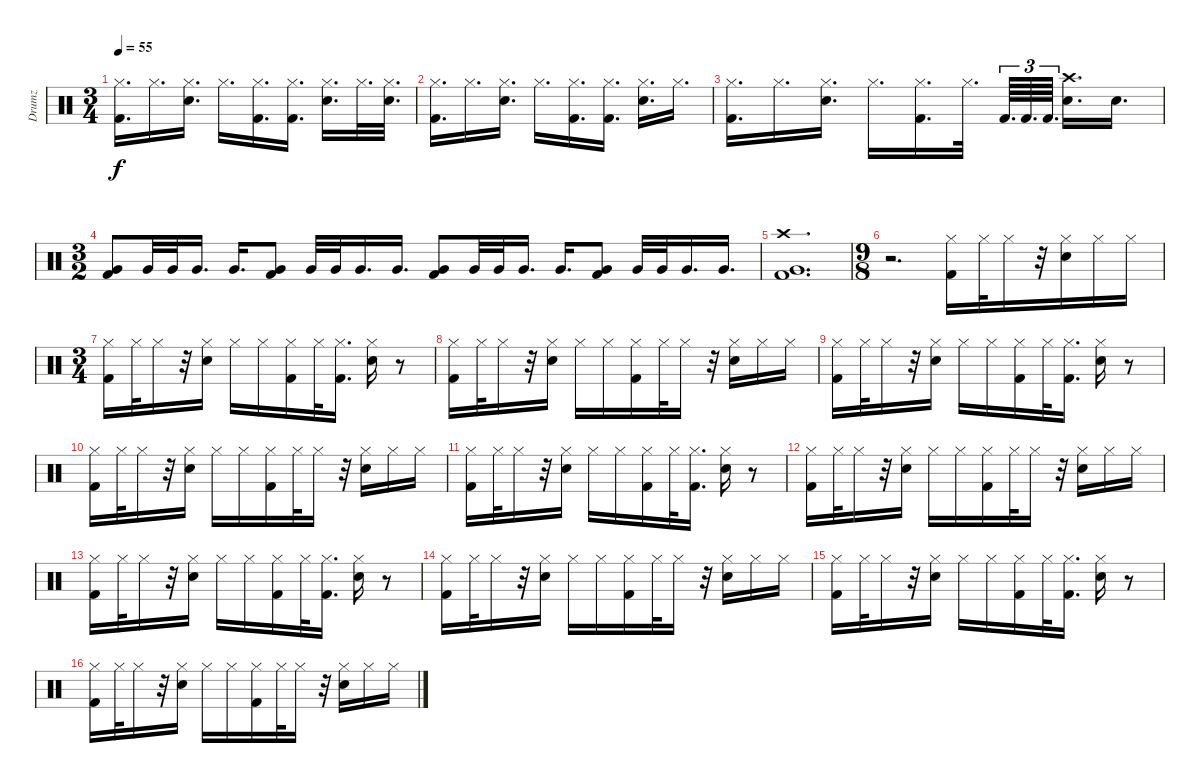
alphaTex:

\track ("Drumz" "Drumz") {instrument percussion}
\staff {score}
\articulation defaults
\ts (3 4)
\tempo 55
\clef neutral
\ks c
("Hi-Hat (closed)" "Kick (hit) 2").16{d dy f} "Hi-Hat (closed)".16{d} ("Hi-Hat (closed)" "Snare (hit) 2").16{d} "Hi-Hat (closed)".16{d} ("Hi-Hat (closed)" "Kick (hit) 2").16{d} ("Hi-Hat (closed)" "Kick (hit) 2").16{d} ("Hi-Hat (closed)" "Snare (hit) 2").16{d} "Hi-Hat (closed)".32{d} ("Hi-Hat (closed)" "Snare (hit) 2").32{d} |
("Hi-Hat (closed)" "Kick (hit) 2").16{d} "Hi-Hat (closed)".16{d} ("Hi-Hat (closed)" "Snare (hit) 2").16{d} "Hi-Hat (closed)".16{d} ("Hi-Hat (closed)" "Kick (hit) 2").16{d} ("Hi-Hat (closed)" "Kick (hit) 2").16{d} ("Hi-Hat (closed)" "Snare (hit) 2").16{d} "Hi-Hat (closed)".16{d} |
("Hi-Hat (closed)" "Kick (hit) 2").16{d} "Hi-Hat (closed)".16{d} ("Hi-Hat (closed)" "Snare (hit) 2").16{d} "Hi-Hat (closed)".16{d} ("Hi-Hat (closed)" "Kick (hit) 2").16{d} "Hi-Hat (closed)".32{d} "Kick (hit) 2".64{d tu (3 2)} "Kick (hit) 2".64{d tu (3 2)} "Kick (hit) 2".64{d tu (3 2) beam splitsecondary} ("Crash high (hit)" "Snare (hit) 2").16{d} "Snare (hit) 2".16{d} |
\ts (3 2)
("Very Low Tom (hit)" "Kick (hit) 2").8 "Very Low Tom (hit)".32 "Very Low Tom (hit)".32 "Very Low Tom (hit)".16{d} "Very Low Tom (hit)".16{d} ("Very Low Tom (hit)" "Kick (hit) 2").8 "Very Low Tom (hit)".32 "Very Low Tom (hit)".32 "Very Low Tom (hit)".16{d} "Very Low Tom (hit)".16{d} ("Very Low Tom (hit)" "Kick (hit) 2").8 "Very Low Tom (hit)".32 "Very Low Tom (hit)".32 "Very Low Tom (hit)".16{d} "Very Low Tom (hit)".16{d} ("Very Low Tom (hit)" "Kick (hit) 2").8 "Very Low Tom (hit)".32 "Very Low Tom (hit)".32 "Very Low Tom (hit)".16{d} "Very Low Tom (hit)".16{d} |
("Crash high (hit)" "Very Low Tom (hit)" "Kick (hit) 2").1{d} |
\ts (9 8)
r.2{d} ("Hi-Hat (closed)" "Kick (hit) 2").16 "Hi-Hat (closed)".32 "Hi-Hat (closed)".16 r.32 ("Hi-Hat (closed)" "Snare (hit) 2").16 "Hi-Hat (closed)".16 "Hi-Hat (closed)".16 |
\ts (3 4)
("Hi-Hat (closed)" "Kick (hit) 2").16 "Hi-Hat (closed)".32 "Hi-Hat (closed)".16 r.32 ("Hi-Hat (closed)" "Snare (hit) 2").16 "Hi-Hat (closed)".16 "Hi-Hat (closed)".16 ("Hi-Hat (closed)" "Kick (hit) 2").16 "Hi-Hat (closed)".32 ("Hi-Hat (closed)" "Kick (hit) 2").16{d} ("Hi-Hat (closed)" "Snare (hit) 2").16 r.8 |
("Hi-Hat (closed)" "Kick (hit) 2").16 "Hi-Hat (closed)".32 "Hi-Hat (closed)".16 r.32 ("Hi-Hat (closed)" "Snare (hit) 2").16 "Hi-Hat (closed)".16 "Hi-Hat (closed)".16 ("Hi-Hat (closed)" "Kick (hit) 2").16 "Hi-Hat (closed)".32 "Hi-Hat (closed)".16 r.32 ("Hi-Hat (closed)" "Snare (hit) 2").16 "Hi-Hat (closed)".16 "Hi-Hat (closed)".16 |
("Hi-Hat (closed)" "Kick (hit) 2").16 "Hi-Hat (closed)".32 "Hi-Hat (closed)".16 r.32 ("Hi-Hat (closed)" "Snare (hit) 2").16 "Hi-Hat (closed)".16 "Hi-Hat (closed)".16 ("Hi-Hat (closed)" "Kick (hit) 2").16 "Hi-Hat (closed)".32 ("Hi-Hat (closed)" "Kick (hit) 2").16{d} ("Hi-Hat (closed)" "Snare (hit) 2").16 r.8 |
("Hi-Hat (closed)" "Kick (hit) 2").16 "Hi-Hat (closed)".32 "Hi-Hat (closed)".16 r.32 ("Hi-Hat (closed)" "Snare (hit) 2").16 "Hi-Hat (closed)".16 "Hi-Hat (closed)".16 ("Hi-Hat (closed)" "Kick (hit) 2").16 "Hi-Hat (closed)".32 "Hi-Hat (closed)".16 r.32 ("Hi-Hat (closed)" "Snare (hit) 2").16 "Hi-Hat (closed)".16 "Hi-Hat (closed)".16 |
("Hi-Hat (closed)" "Kick (hit) 2").16 "Hi-Hat (closed)".32 "Hi-Hat (closed)".16 r.32 ("Hi-Hat (closed)" "Snare (hit) 2").16 "Hi-Hat (closed)".16 "Hi-Hat (closed)".16 ("Hi-Hat (closed)" "Kick (hit) 2").16 "Hi-Hat (closed)".32 ("Hi-Hat (closed)" "Kick (hit) 2").16{d} ("Hi-Hat (closed)" "Snare (hit) 2").16 r.8 |
("Hi-Hat (closed)" "Kick (hit) 2").16 "Hi-Hat (closed)".32 "Hi-Hat (closed)".16 r.32 ("Hi-Hat (closed)" "Snare (hit) 2").16 "Hi-Hat (closed)".16 "Hi-Hat (closed)".16 ("Hi-Hat (closed)" "Kick (hit) 2").16 "Hi-Hat (closed)".32 "Hi-Hat (closed)".16 r.32 ("Hi-Hat (closed)" "Snare (hit) 2").16 "Hi-Hat (closed)".16 "Hi-Hat (closed)".16 |
("Hi-Hat (closed)" "Kick (hit) 2").16 "Hi-Hat (closed)".32 "Hi-Hat (closed)".16 r.32 ("Hi-Hat (closed)" "Snare (hit) 2").16 "Hi-Hat (closed)".16 "Hi-Hat (closed)".16 ("Hi-Hat (closed)" "Kick (hit) 2").16 "Hi-Hat (closed)".32 ("Hi-Hat (closed)" "Kick (hit) 2").16{d} ("Hi-Hat (closed)" "Snare (hit) 2").16 r.8 |
("Hi-Hat (closed)" "Kick (hit) 2").16 "Hi-Hat (closed)".32 "Hi-Hat (closed)".16 r.32 ("Hi-Hat (closed)" "Snare (hit) 2").16 "Hi-Hat (closed)".16 "Hi-Hat (closed)".16 ("Hi-Hat (closed)" "Kick (hit) 2").16 "Hi-Hat (closed)".32 "Hi-Hat (closed)".16 r.32 ("Hi-Hat (closed)" "Snare (hit) 2").16 "Hi-Hat (closed)".16 "Hi-Hat (closed)".16 |
("Hi-Hat (closed)" "Kick (hit) 2").16 "Hi-Hat (closed)".32 "Hi-Hat (closed)".16 r.32 ("Hi-Hat (closed)" "Snare (hit) 2").16 "Hi-Hat (closed)".16 "Hi-Hat (closed)".16 ("Hi-Hat (closed)" "Kick (hit) 2").16 "Hi-Hat (closed)".32 ("Hi-Hat (closed)" "Kick (hit) 2").16{d} ("Hi-Hat (closed)" "Snare (hit) 2").16 r.8 |
("Hi-Hat (closed)" "Kick (hit) 2").16 "Hi-Hat (closed)".32 "Hi-Hat (closed)".16 r.32 ("Hi-Hat (closed)" "Snare (hit) 2").16 "Hi-Hat (closed)".16 "Hi-Hat (closed)".16 ("Hi-Hat (closed)" "Kick (hit) 2").16 "Hi-Hat (closed)".32 "Hi-Hat (closed)".16 r.32 ("Hi-Hat (closed)" "Snare (hit) 2").16 "Hi-Hat (closed)".16 "Hi-Hat (closed)".16
